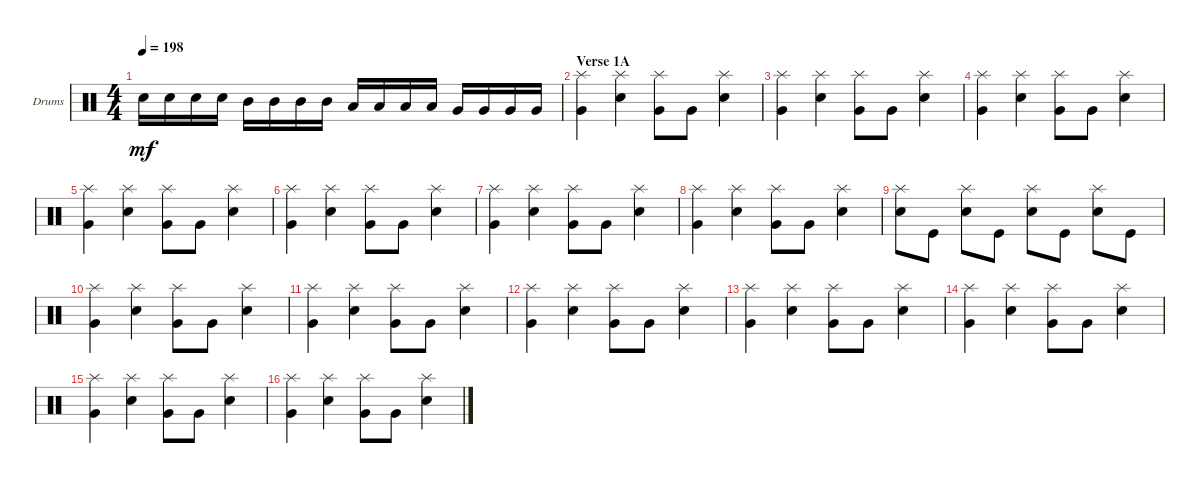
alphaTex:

\bracketExtendMode groupsimilarinstruments
\firstSystemTrackNameOrientation horizontal
\otherSystemsTrackNameOrientation horizontal
\track ("Drumkit" "Drums") {instrument percussion}
\staff {score}
\articulation defaults
\ts (4 4)
\tempo 198
\clef neutral
\ks c "Snare (hit) 2".16{dy mf} "Snare (hit) 2".16 "Snare (hit) 2".16 "Snare (hit) 2".16 "Mid Tom (hit)".16 "Mid Tom (hit)".16 "Mid Tom (hit)".16 "Mid Tom (hit)".16 "Low Tom (hit)".16 "Low Tom (hit)".16 "Low Tom (hit)".16 "Low Tom (hit)".16 "Very Low Tom (hit)".16 "Very Low Tom (hit)".16 "Very Low Tom (hit)".16 "Very Low Tom (hit)".16
|
\section ("" "Verse 1A")
("Very Low Tom (hit)" "Splash (hit)").4 ("Splash (hit)" "Snare (hit) 2").4 ("Very Low Tom (hit)" "Splash (hit)").8 "Very Low Tom (hit)".8 ("Splash (hit)" "Snare (hit) 2").4 |
("Very Low Tom (hit)" "Splash (hit)").4 ("Splash (hit)" "Snare (hit) 2").4 ("Very Low Tom (hit)" "Splash (hit)").8 "Very Low Tom (hit)".8 ("Splash (hit)" "Snare (hit) 2").4 |
("Very Low Tom (hit)" "Splash (hit)").4 ("Splash (hit)" "Snare (hit) 2").4 ("Very Low Tom (hit)" "Splash (hit)").8 "Very Low Tom (hit)".8 ("Splash (hit)" "Snare (hit) 2").4 |
("Very Low Tom (hit)" "Splash (hit)").4 ("Splash (hit)" "Snare (hit) 2").4 ("Very Low Tom (hit)" "Splash (hit)").8 "Very Low Tom (hit)".8 ("Splash (hit)" "Snare (hit) 2").4 |
("Very Low Tom (hit)" "Splash (hit)").4 ("Splash (hit)" "Snare (hit) 2").4 ("Very Low Tom (hit)" "Splash (hit)").8 "Very Low Tom (hit)".8 ("Splash (hit)" "Snare (hit) 2").4 |
("Very Low Tom (hit)" "Splash (hit)").4 ("Splash (hit)" "Snare (hit) 2").4 ("Very Low Tom (hit)" "Splash (hit)").8 "Very Low Tom (hit)".8 ("Splash (hit)" "Snare (hit) 2").4 |
("Very Low Tom (hit)" "Splash (hit)").4 ("Splash (hit)" "Snare (hit) 2").4 ("Very Low Tom (hit)" "Splash (hit)").8 "Very Low Tom (hit)".8 ("Splash (hit)" "Snare (hit) 2").4 |
("Snare (hit) 2" "Splash (hit)").8 "Kick (hit)".8 ("Snare (hit) 2" "Splash (hit)").8 "Kick (hit)".8 ("Snare (hit) 2" "Splash (hit)").8 "Kick (hit)".8 ("Snare (hit) 2" "Splash (hit)").8 "Kick (hit)".8 |
("Very Low Tom (hit)" "Splash (hit)").4 ("Splash (hit)" "Snare (hit) 2").4 ("Very Low Tom (hit)" "Splash (hit)").8 "Very Low Tom (hit)".8 ("Splash (hit)" "Snare (hit) 2").4 |
("Very Low Tom (hit)" "Splash (hit)").4 ("Splash (hit)" "Snare (hit) 2").4 ("Very Low Tom (hit)" "Splash (hit)").8 "Very Low Tom (hit)".8 ("Splash (hit)" "Snare (hit) 2").4 |
("Very Low Tom (hit)" "Splash (hit)").4 ("Splash (hit)" "Snare (hit) 2").4 ("Very Low Tom (hit)" "Splash (hit)").8 "Very Low Tom (hit)".8 ("Splash (hit)" "Snare (hit) 2").4 |
("Very Low Tom (hit)" "Splash (hit)").4 ("Splash (hit)" "Snare (hit) 2").4 ("Very Low Tom (hit)" "Splash (hit)").8 "Very Low Tom (hit)".8 ("Splash (hit)" "Snare (hit) 2").4 |
("Very Low Tom (hit)" "Splash (hit)").4 ("Splash (hit)" "Snare (hit) 2").4 ("Very Low Tom (hit)" "Splash (hit)").8 "Very Low Tom (hit)".8 ("Splash (hit)" "Snare (hit) 2").4 |
("Very Low Tom (hit)" "Splash (hit)").4 ("Splash (hit)" "Snare (hit) 2").4 ("Very Low Tom (hit)" "Splash (hit)").8 "Very Low Tom (hit)".8 ("Splash (hit)" "Snare (hit) 2").4 |
("Very Low Tom (hit)" "Splash (hit)").4 ("Splash (hit)" "Snare (hit) 2").4 ("Very Low Tom (hit)" "Splash (hit)").8 "Very Low Tom (hit)".8 ("Splash (hit)" "Snare (hit) 2").4
